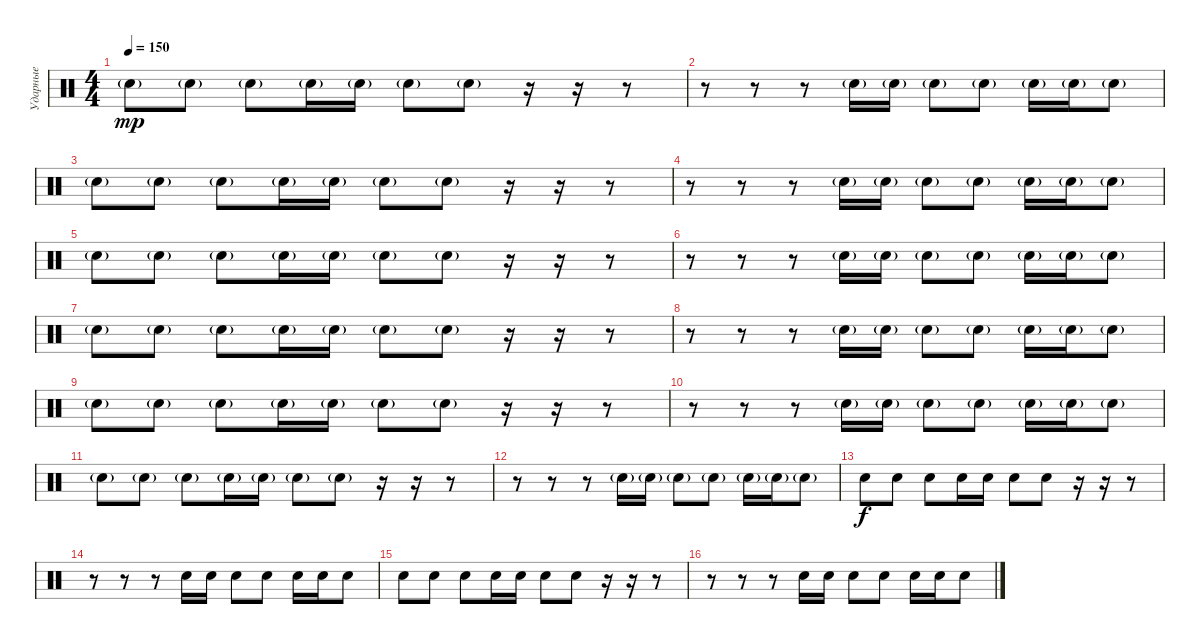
\track ("Ударные" "Ударные") {instrument percussion}
\staff {score}
\articulation defaults
\ts (4 4)
\tempo 150
\clef neutral
\ks c "Electric Snare (hit)"{g}.8{dy mp} "Electric Snare (hit)"{g}.8 "Electric Snare (hit)"{g}.8 "Electric Snare (hit)"{g}.16 "Electric Snare (hit)"{g}.16 "Electric Snare (hit)"{g}.8 "Electric Snare (hit)"{g}.8
r.16 r.16 r.8 |
r.8 r.8 r.8 "Electric Snare (hit)"{g}.16 "Electric Snare (hit)"{g}.16 "Electric Snare (hit)"{g}.8 "Electric Snare (hit)"{g}.8 "Electric Snare (hit)"{g}.16 "Electric Snare (hit)"{g}.16 "Electric Snare (hit)"{g}.8 |
"Electric Snare (hit)"{g}.8 "Electric Snare (hit)"{g}.8 "Electric Snare (hit)"{g}.8 "Electric Snare (hit)"{g}.16 "Electric Snare (hit)"{g}.16 "Electric Snare (hit)"{g}.8 "Electric Snare (hit)"{g}.8 r.16 r.16 r.8 |
r.8 r.8 r.8 "Electric Snare (hit)"{g}.16 "Electric Snare (hit)"{g}.16 "Electric Snare (hit)"{g}.8 "Electric Snare (hit)"{g}.8 "Electric Snare (hit)"{g}.16 "Electric Snare (hit)"{g}.16 "Electric Snare (hit)"{g}.8 |
"Electric Snare (hit)"{g}.8 "Electric Snare (hit)"{g}.8 "Electric Snare (hit)"{g}.8 "Electric Snare (hit)"{g}.16 "Electric Snare (hit)"{g}.16 "Electric Snare (hit)"{g}.8 "Electric Snare (hit)"{g}.8 r.16 r.16 r.8 |
r.8 r.8 r.8 "Electric Snare (hit)"{g}.16 "Electric Snare (hit)"{g}.16 "Electric Snare (hit)"{g}.8 "Electric Snare (hit)"{g}.8 "Electric Snare (hit)"{g}.16 "Electric Snare (hit)"{g}.16 "Electric Snare (hit)"{g}.8 |
"Electric Snare (hit)"{g}.8 "Electric Snare (hit)"{g}.8 "Electric Snare (hit)"{g}.8 "Electric Snare (hit)"{g}.16 "Electric Snare (hit)"{g}.16 "Electric Snare (hit)"{g}.8 "Electric Snare (hit)"{g}.8 r.16 r.16 r.8 |
r.8 r.8 r.8 "Electric Snare (hit)"{g}.16 "Electric Snare (hit)"{g}.16 "Electric Snare (hit)"{g}.8 "Electric Snare (hit)"{g}.8 "Electric Snare (hit)"{g}.16 "Electric Snare (hit)"{g}.16 "Electric Snare (hit)"{g}.8 |
"Electric Snare (hit)"{g}.8 "Electric Snare (hit)"{g}.8 "Electric Snare (hit)"{g}.8 "Electric Snare (hit)"{g}.16 "Electric Snare (hit)"{g}.16 "Electric Snare (hit)"{g}.8 "Electric Snare (hit)"{g}.8 r.16 r.16 r.8 |
r.8 r.8 r.8 "Electric Snare (hit)"{g}.16 "Electric Snare (hit)"{g}.16 "Electric Snare (hit)"{g}.8 "Electric Snare (hit)"{g}.8 "Electric Snare (hit)"{g}.16 "Electric Snare (hit)"{g}.16 "Electric Snare (hit)"{g}.8 |
"Electric Snare (hit)"{g}.8 "Electric Snare (hit)"{g}.8 "Electric Snare (hit)"{g}.8 "Electric Snare (hit)"{g}.16 "Electric Snare (hit)"{g}.16 "Electric Snare (hit)"{g}.8 "Electric Snare (hit)"{g}.8 r.16 r.16 r.8 |
r.8 r.8 r.8 "Electric Snare (hit)"{g}.16 "Electric Snare (hit)"{g}.16 "Electric Snare (hit)"{g}.8 "Electric Snare (hit)"{g}.8 "Electric Snare (hit)"{g}.16 "Electric Snare (hit)"{g}.16 "Electric Snare (hit)"{g}.8 |
"Electric Snare (hit)".8{dy f} "Electric Snare (hit)".8 "Electric Snare (hit)".8 "Electric Snare (hit)".16 "Electric Snare (hit)".16 "Electric Snare (hit)".8 "Electric Snare (hit)".8 r.16 r.16 r.8 |
r.8 r.8 r.8 "Electric Snare (hit)".16 "Electric Snare (hit)".16 "Electric Snare (hit)".8 "Electric Snare (hit)".8 "Electric Snare (hit)".16 "Electric Snare (hit)".16 "Electric Snare (hit)".8 |
"Electric Snare (hit)".8 "Electric Snare (hit)".8 "Electric Snare (hit)".8 "Electric Snare (hit)".16 "Electric Snare (hit)".16 "Electric Snare (hit)".8 "Electric Snare (hit)".8 r.16 r.16 r.8 |
r.8 r.8 r.8 "Electric Snare (hit)".16 "Electric Snare (hit)".16 "Electric Snare (hit)".8 "Electric Snare (hit)".8 "Electric Snare (hit)".16 "Electric Snare (hit)".16 "Electric Snare (hit)".8
